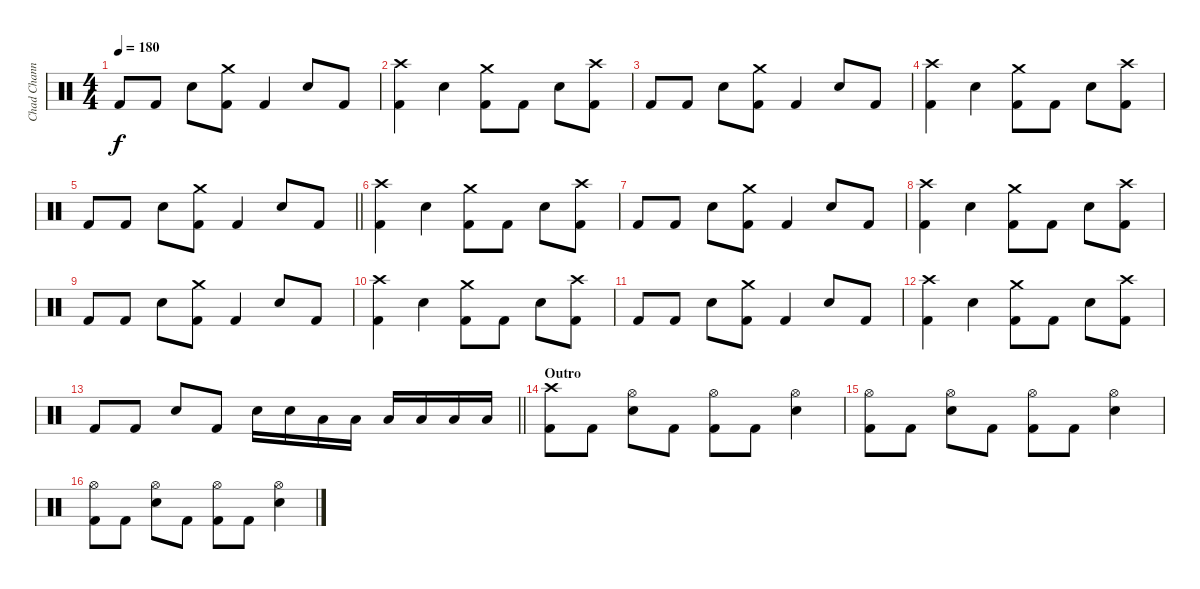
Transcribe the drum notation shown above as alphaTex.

\track ("Chad Channing" "Chad Chann") {instrument percussion}
\staff {score}
\articulation defaults
\ts (4 4)
\tempo 180
\clef neutral
\ks c "Kick (hit) 2".8{dy f} "Kick (hit) 2".8 "Snare (hit) 2".8
("Crash medium (hit)" "Kick (hit) 2").8 "Kick (hit) 2".4 "Snare (hit) 2".8 "Kick (hit) 2".8 |
("Crash high (hit)" "Kick (hit) 2").4 "Snare (hit) 2".4 ("Crash medium (hit)" "Kick (hit) 2").8 "Kick (hit) 2".8 "Snare (hit) 2".8 ("Crash high (hit)" "Kick (hit) 2").8 |
"Kick (hit) 2".8 "Kick (hit) 2".8 "Snare (hit) 2".8 ("Crash medium (hit)" "Kick (hit) 2").8 "Kick (hit) 2".4 "Snare (hit) 2".8 "Kick (hit) 2".8 |
("Crash high (hit)" "Kick (hit) 2").4 "Snare (hit) 2".4 ("Crash medium (hit)" "Kick (hit) 2").8 "Kick (hit) 2".8 "Snare (hit) 2".8 ("Crash high (hit)" "Kick (hit) 2").8 |
\barLineRight lightlight "Kick (hit) 2".8 "Kick (hit) 2".8 "Snare (hit) 2".8
("Crash medium (hit)" "Kick (hit) 2").8 "Kick (hit) 2".4 "Snare (hit) 2".8 "Kick (hit) 2".8 |
("Crash high (hit)" "Kick (hit) 2").4 "Snare (hit) 2".4 ("Crash medium (hit)" "Kick (hit) 2").8 "Kick (hit) 2".8 "Snare (hit) 2".8 ("Crash high (hit)" "Kick (hit) 2").8 |
"Kick (hit) 2".8 "Kick (hit) 2".8 "Snare (hit) 2".8 ("Crash medium (hit)" "Kick (hit) 2").8 "Kick (hit) 2".4 "Snare (hit) 2".8 "Kick (hit) 2".8 |
("Crash high (hit)" "Kick (hit) 2").4 "Snare (hit) 2".4 ("Crash medium (hit)" "Kick (hit) 2").8 "Kick (hit) 2".8 "Snare (hit) 2".8 ("Crash high (hit)" "Kick (hit) 2").8 |
"Kick (hit) 2".8 "Kick (hit) 2".8 "Snare (hit) 2".8 ("Crash medium (hit)" "Kick (hit) 2").8 "Kick (hit) 2".4 "Snare (hit) 2".8 "Kick (hit) 2".8 |
("Crash high (hit)" "Kick (hit) 2").4 "Snare (hit) 2".4 ("Crash medium (hit)" "Kick (hit) 2").8 "Kick (hit) 2".8 "Snare (hit) 2".8 ("Crash high (hit)" "Kick (hit) 2").8 |
"Kick (hit) 2".8 "Kick (hit) 2".8 "Snare (hit) 2".8 ("Crash medium (hit)" "Kick (hit) 2").8 "Kick (hit) 2".4 "Snare (hit) 2".8 "Kick (hit) 2".8 |
("Crash high (hit)" "Kick (hit) 2").4 "Snare (hit) 2".4 ("Crash medium (hit)" "Kick (hit) 2").8 "Kick (hit) 2".8 "Snare (hit) 2".8 ("Crash high (hit)" "Kick (hit) 2").8 |
\barLineRight lightlight "Kick (hit) 2".8 "Kick (hit) 2".8 "Snare (hit) 2".8 "Kick (hit) 2".8 "Snare (hit) 2".16 "Snare (hit) 2".16 "Low Tom (hit)".16 "Low Tom (hit)".16 "Low Floor Tom (hit)".16 "Low Floor Tom (hit)".16 "Low Floor Tom (hit)".16 "Low Floor Tom (hit)".16
|
\section ("" "Outro")
("Crash high (hit)" "Kick (hit) 2").8 "Kick (hit) 2".8 ("Hi-Hat (open)" "Snare (hit) 2").8 "Kick (hit) 2".8 ("Hi-Hat (open)" "Kick (hit) 2").8 "Kick (hit) 2".8 ("Hi-Hat (open)" "Snare (hit) 2").4 |
("Hi-Hat (open)" "Kick (hit) 2").8 "Kick (hit) 2".8 ("Hi-Hat (open)" "Snare (hit) 2").8 "Kick (hit) 2".8 ("Hi-Hat (open)" "Kick (hit) 2").8 "Kick (hit) 2".8 ("Hi-Hat (open)" "Snare (hit) 2").4 |
("Hi-Hat (open)" "Kick (hit) 2").8 "Kick (hit) 2".8 ("Hi-Hat (open)" "Snare (hit) 2").8 "Kick (hit) 2".8 ("Hi-Hat (open)" "Kick (hit) 2").8 "Kick (hit) 2".8 ("Hi-Hat (open)" "Snare (hit) 2").4
